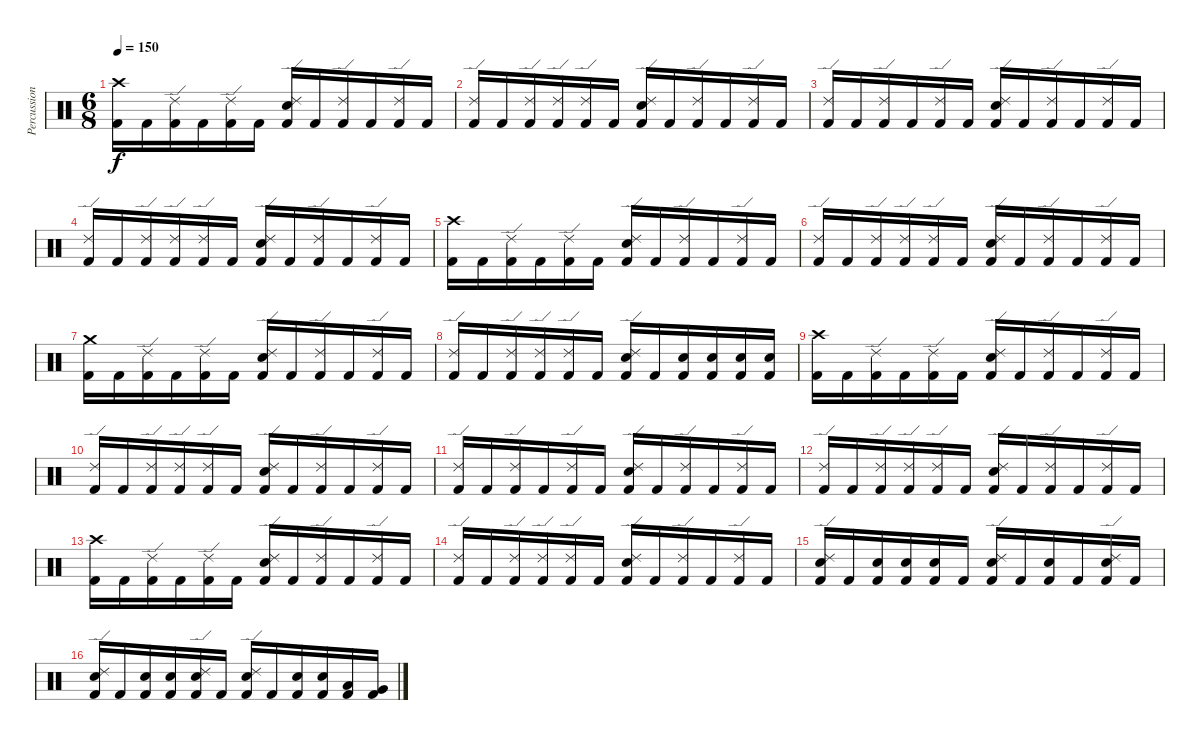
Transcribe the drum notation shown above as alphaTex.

\track ("Percussion" "Percussion") {instrument percussion}
\staff {score}
\articulation defaults
\ts (6 8)
\tempo 150
\clef neutral
\ks c
("Crash high (hit)" "Kick (hit) 2").16{dy f} "Kick (hit) 2".16 ("Ride (edge) 2" "Kick (hit) 2").16 "Kick (hit) 2".16 ("Ride (edge) 2" "Kick (hit) 2").16 "Kick (hit) 2".16 ("Ride (edge) 2" "Electric Snare (hit)" "Kick (hit) 2").16 "Kick (hit) 2".16 ("Ride (edge) 2" "Kick (hit) 2").16 "Kick (hit) 2".16 ("Ride (edge) 2" "Kick (hit) 2").16 "Kick (hit) 2".16 |
("Ride (edge) 2" "Kick (hit) 2").16 "Kick (hit) 2".16 ("Ride (edge) 2" "Kick (hit) 2").16 ("Ride (edge) 2" "Kick (hit) 2").16 ("Ride (edge) 2" "Kick (hit) 2").16 "Kick (hit) 2".16 ("Ride (edge) 2" "Electric Snare (hit)" "Kick (hit) 2").16 "Kick (hit) 2".16 ("Ride (edge) 2" "Kick (hit) 2").16 "Kick (hit) 2".16 ("Ride (edge) 2" "Kick (hit) 2").16 "Kick (hit) 2".16 |
("Ride (edge) 2" "Kick (hit) 2").16 "Kick (hit) 2".16 ("Ride (edge) 2" "Kick (hit) 2").16 "Kick (hit) 2".16 ("Ride (edge) 2" "Kick (hit) 2").16 "Kick (hit) 2".16 ("Ride (edge) 2" "Electric Snare (hit)" "Kick (hit) 2").16 "Kick (hit) 2".16 ("Ride (edge) 2" "Kick (hit) 2").16 "Kick (hit) 2".16 ("Ride (edge) 2" "Kick (hit) 2").16 "Kick (hit) 2".16 |
("Ride (edge) 2" "Kick (hit) 2").16 "Kick (hit) 2".16 ("Ride (edge) 2" "Kick (hit) 2").16 ("Ride (edge) 2" "Kick (hit) 2").16 ("Ride (edge) 2" "Kick (hit) 2").16 "Kick (hit) 2".16 ("Ride (edge) 2" "Electric Snare (hit)" "Kick (hit) 2").16 "Kick (hit) 2".16 ("Ride (edge) 2" "Kick (hit) 2").16 "Kick (hit) 2".16 ("Ride (edge) 2" "Kick (hit) 2").16 "Kick (hit) 2".16 |
("Crash high (hit)" "Kick (hit) 2").16 "Kick (hit) 2".16 ("Ride (edge) 2" "Kick (hit) 2").16 "Kick (hit) 2".16 ("Ride (edge) 2" "Kick (hit) 2").16 "Kick (hit) 2".16 ("Ride (edge) 2" "Electric Snare (hit)" "Kick (hit) 2").16 "Kick (hit) 2".16 ("Ride (edge) 2" "Kick (hit) 2").16 "Kick (hit) 2".16 ("Ride (edge) 2" "Kick (hit) 2").16 "Kick (hit) 2".16 |
("Ride (edge) 2" "Kick (hit) 2").16 "Kick (hit) 2".16 ("Ride (edge) 2" "Kick (hit) 2").16 ("Ride (edge) 2" "Kick (hit) 2").16 ("Ride (edge) 2" "Kick (hit) 2").16 "Kick (hit) 2".16 ("Ride (edge) 2" "Electric Snare (hit)" "Kick (hit) 2").16 "Kick (hit) 2".16 ("Ride (edge) 2" "Kick (hit) 2").16 "Kick (hit) 2".16 ("Ride (edge) 2" "Kick (hit) 2").16 "Kick (hit) 2".16 |
("Crash medium (hit)" "Kick (hit) 2").16 "Kick (hit) 2".16 ("Ride (edge) 2" "Kick (hit) 2").16 "Kick (hit) 2".16 ("Ride (edge) 2" "Kick (hit) 2").16 "Kick (hit) 2".16 ("Ride (edge) 2" "Electric Snare (hit)" "Kick (hit) 2").16 "Kick (hit) 2".16 ("Ride (edge) 2" "Kick (hit) 2").16 "Kick (hit) 2".16 ("Ride (edge) 2" "Kick (hit) 2").16 "Kick (hit) 2".16 |
("Ride (edge) 2" "Kick (hit) 2").16 "Kick (hit) 2".16 ("Ride (edge) 2" "Kick (hit) 2").16 ("Ride (edge) 2" "Kick (hit) 2").16 ("Ride (edge) 2" "Kick (hit) 2").16 "Kick (hit) 2".16 ("Ride (edge) 2" "Electric Snare (hit)" "Kick (hit) 2").16 "Kick (hit) 2".16 ("Electric Snare (hit)" "Kick (hit) 2").16 ("Electric Snare (hit)" "Kick (hit) 2").16 ("Electric Snare (hit)" "Kick (hit) 2").16 ("Electric Snare (hit)" "Kick (hit) 2").16 |
("Crash high (hit)" "Kick (hit) 2").16 "Kick (hit) 2".16 ("Ride (edge) 2" "Kick (hit) 2").16 "Kick (hit) 2".16 ("Ride (edge) 2" "Kick (hit) 2").16 "Kick (hit) 2".16 ("Ride (edge) 2" "Electric Snare (hit)" "Kick (hit) 2").16 "Kick (hit) 2".16 ("Ride (edge) 2" "Kick (hit) 2").16 "Kick (hit) 2".16 ("Ride (edge) 2" "Kick (hit) 2").16 "Kick (hit) 2".16 |
("Ride (edge) 2" "Kick (hit) 2").16 "Kick (hit) 2".16 ("Ride (edge) 2" "Kick (hit) 2").16 ("Ride (edge) 2" "Kick (hit) 2").16 ("Ride (edge) 2" "Kick (hit) 2").16 "Kick (hit) 2".16 ("Ride (edge) 2" "Electric Snare (hit)" "Kick (hit) 2").16 "Kick (hit) 2".16 ("Ride (edge) 2" "Kick (hit) 2").16 "Kick (hit) 2".16 ("Ride (edge) 2" "Kick (hit) 2").16 "Kick (hit) 2".16 |
("Ride (edge) 2" "Kick (hit) 2").16 "Kick (hit) 2".16 ("Ride (edge) 2" "Kick (hit) 2").16 "Kick (hit) 2".16 ("Ride (edge) 2" "Kick (hit) 2").16 "Kick (hit) 2".16 ("Ride (edge) 2" "Electric Snare (hit)" "Kick (hit) 2").16 "Kick (hit) 2".16 ("Ride (edge) 2" "Kick (hit) 2").16 "Kick (hit) 2".16 ("Ride (edge) 2" "Kick (hit) 2").16 "Kick (hit) 2".16 |
("Ride (edge) 2" "Kick (hit) 2").16 "Kick (hit) 2".16 ("Ride (edge) 2" "Kick (hit) 2").16 ("Ride (edge) 2" "Kick (hit) 2").16 ("Ride (edge) 2" "Kick (hit) 2").16 "Kick (hit) 2".16 ("Ride (edge) 2" "Electric Snare (hit)" "Kick (hit) 2").16 "Kick (hit) 2".16 ("Ride (edge) 2" "Kick (hit) 2").16 "Kick (hit) 2".16 ("Ride (edge) 2" "Kick (hit) 2").16 "Kick (hit) 2".16 |
("Crash high (hit)" "Kick (hit) 2").16 "Kick (hit) 2".16 ("Ride (edge) 2" "Kick (hit) 2").16 "Kick (hit) 2".16 ("Ride (edge) 2" "Kick (hit) 2").16 "Kick (hit) 2".16 ("Ride (edge) 2" "Electric Snare (hit)" "Kick (hit) 2").16 "Kick (hit) 2".16 ("Ride (edge) 2" "Kick (hit) 2").16 "Kick (hit) 2".16 ("Ride (edge) 2" "Kick (hit) 2").16 "Kick (hit) 2".16 |
("Ride (edge) 2" "Kick (hit) 2").16 "Kick (hit) 2".16 ("Ride (edge) 2" "Kick (hit) 2").16 ("Ride (edge) 2" "Kick (hit) 2").16 ("Ride (edge) 2" "Kick (hit) 2").16 "Kick (hit) 2".16 ("Ride (edge) 2" "Electric Snare (hit)" "Kick (hit) 2").16 "Kick (hit) 2".16 ("Ride (edge) 2" "Kick (hit) 2").16 "Kick (hit) 2".16 ("Ride (edge) 2" "Kick (hit) 2").16 "Kick (hit) 2".16 |
("Ride (edge) 2" "Electric Snare (hit)" "Kick (hit) 2").16 "Kick (hit) 2".16 ("Electric Snare (hit)" "Kick (hit) 2").16 ("Electric Snare (hit)" "Kick (hit) 2").16 ("Electric Snare (hit)" "Kick (hit) 2").16 "Kick (hit) 2".16 ("Ride (edge) 2" "Electric Snare (hit)" "Kick (hit) 2").16 "Kick (hit) 2".16 ("Electric Snare (hit)" "Kick (hit) 2").16 "Kick (hit) 2".16 ("Ride (edge) 2" "Electric Snare (hit)" "Kick (hit) 2").16 "Kick (hit) 2".16 |
("Ride (edge) 2" "Electric Snare (hit)" "Kick (hit) 2").16 "Kick (hit) 2".16 ("Electric Snare (hit)" "Kick (hit) 2").16 ("Electric Snare (hit)" "Kick (hit) 2").16 ("Ride (edge) 2" "Electric Snare (hit)" "Kick (hit) 2").16 "Kick (hit) 2".16 ("Ride (edge) 2" "Electric Snare (hit)" "Kick (hit) 2").16 "Kick (hit) 2".16 ("Electric Snare (hit)" "Kick (hit) 2").16 ("Electric Snare (hit)" "Kick (hit) 2").16 ("Low Tom (hit)" "Kick (hit) 2").16 ("Very Low Tom (hit)" "Kick (hit) 2").16
